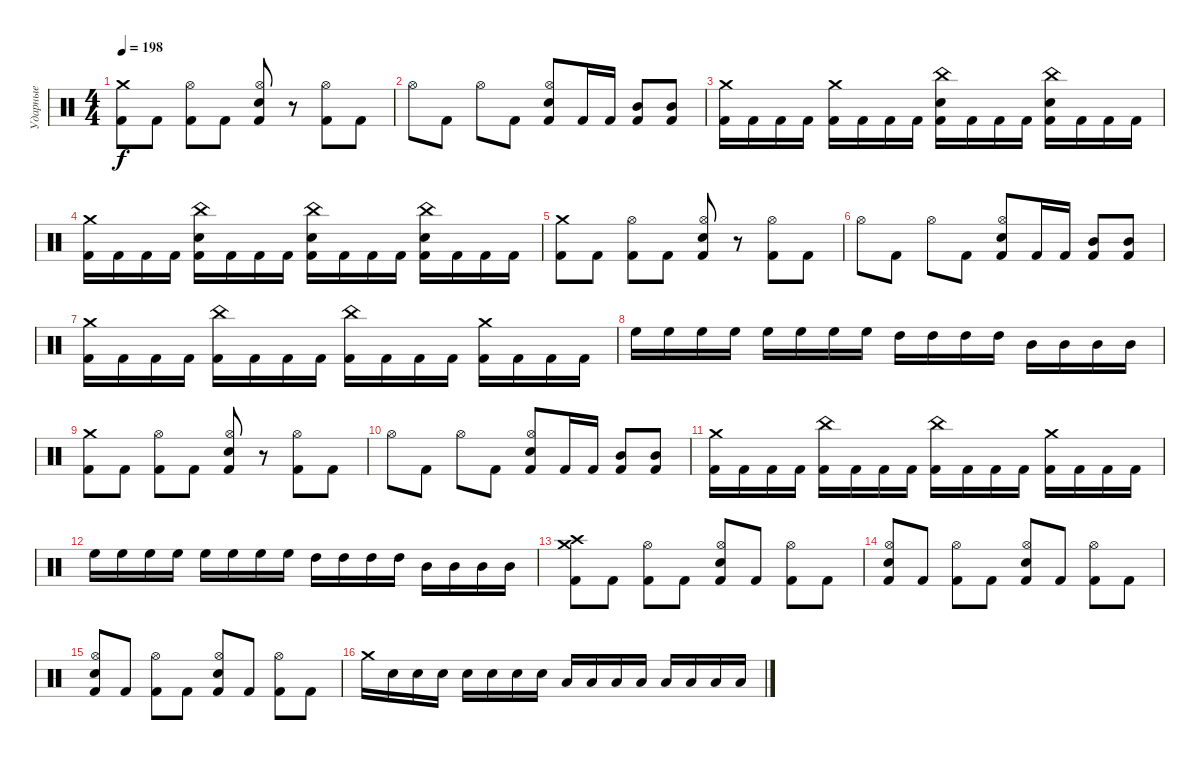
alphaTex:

\track ("Ударные" "Ударные") {instrument percussion}
\staff {score}
\articulation defaults
\ts (4 4)
\tempo 198
\clef neutral
\ks c
("Kick (hit) 2" "Crash medium (hit)").8{dy f} "Kick (hit) 2".8 ("Kick (hit) 2" "Hi-Hat (open)").8 "Kick (hit) 2".8 ("Kick (hit) 2" "Hi-Hat (open)" "Electric Snare (hit)").8 r.8 ("Kick (hit) 2" "Hi-Hat (open)").8 "Kick (hit) 2".8 |
"Hi-Hat (open)".8 "Kick (hit) 2".8 "Hi-Hat (open)".8 "Kick (hit) 2".8 ("Kick (hit) 2" "Hi-Hat (open)" "Electric Snare (hit)").8 "Kick (hit) 2".16 "Kick (hit) 2".16 ("Kick (hit) 2" "Mid Tom (hit)").8 ("Kick (hit) 2" "Mid Tom (hit)").8 |
("Kick (hit) 2" "Crash medium (hit)").16 "Kick (hit) 2".16 "Kick (hit) 2".16 "Kick (hit) 2".16 ("Kick (hit) 2" "Crash medium (hit)").16 "Kick (hit) 2".16 "Kick (hit) 2".16 "Kick (hit) 2".16 ("Kick (hit) 2" "China (hit)" "Electric Snare (hit)").16 "Kick (hit) 2".16 "Kick (hit) 2".16 "Kick (hit) 2".16 ("Kick (hit) 2" "China (hit)" "Electric Snare (hit)").16 "Kick (hit) 2".16 "Kick (hit) 2".16 "Kick (hit) 2".16 |
("Kick (hit) 2" "Crash medium (hit)").16 "Kick (hit) 2".16 "Kick (hit) 2".16 "Kick (hit) 2".16 ("Kick (hit) 2" "China (hit)" "Electric Snare (hit)").16 "Kick (hit) 2".16 "Kick (hit) 2".16 "Kick (hit) 2".16 ("Kick (hit) 2" "China (hit)" "Electric Snare (hit)").16 "Kick (hit) 2".16 "Kick (hit) 2".16 "Kick (hit) 2".16 ("Kick (hit) 2" "China (hit)" "Electric Snare (hit)").16 "Kick (hit) 2".16 "Kick (hit) 2".16 "Kick (hit) 2".16 |
("Kick (hit) 2" "Crash medium (hit)").8 "Kick (hit) 2".8 ("Kick (hit) 2" "Hi-Hat (open)").8 "Kick (hit) 2".8 ("Kick (hit) 2" "Hi-Hat (open)" "Electric Snare (hit)").8 r.8 ("Kick (hit) 2" "Hi-Hat (open)").8 "Kick (hit) 2".8 |
"Hi-Hat (open)".8 "Kick (hit) 2".8 "Hi-Hat (open)".8 "Kick (hit) 2".8 ("Kick (hit) 2" "Hi-Hat (open)" "Electric Snare (hit)").8 "Kick (hit) 2".16 "Kick (hit) 2".16 ("Kick (hit) 2" "Mid Tom (hit)").8 ("Kick (hit) 2" "Mid Tom (hit)").8 |
("Kick (hit) 2" "Crash medium (hit)").16 "Kick (hit) 2".16 "Kick (hit) 2".16 "Kick (hit) 2".16 ("Kick (hit) 2" "China (hit)").16 "Kick (hit) 2".16 "Kick (hit) 2".16 "Kick (hit) 2".16 ("Kick (hit) 2" "China (hit)").16 "Kick (hit) 2".16 "Kick (hit) 2".16 "Kick (hit) 2".16 ("Kick (hit) 2" "Crash medium (hit)").16 "Kick (hit) 2".16 "Kick (hit) 2".16 "Kick (hit) 2".16 |
"High Floor Tom (hit)".16 "High Floor Tom (hit)".16 "High Floor Tom (hit)".16 "High Floor Tom (hit)".16 "High Floor Tom (hit)".16 "High Floor Tom (hit)".16 "High Floor Tom (hit)".16 "High Floor Tom (hit)".16 "High Tom (hit)".16 "High Tom (hit)".16 "High Tom (hit)".16 "High Tom (hit)".16 "Mid Tom (hit)".16 "Mid Tom (hit)".16 "Mid Tom (hit)".16 "Mid Tom (hit)".16 |
("Kick (hit) 2" "Crash medium (hit)").8 "Kick (hit) 2".8 ("Kick (hit) 2" "Hi-Hat (open)").8 "Kick (hit) 2".8 ("Kick (hit) 2" "Hi-Hat (open)" "Electric Snare (hit)").8 r.8 ("Kick (hit) 2" "Hi-Hat (open)").8 "Kick (hit) 2".8 |
"Hi-Hat (open)".8 "Kick (hit) 2".8 "Hi-Hat (open)".8 "Kick (hit) 2".8 ("Kick (hit) 2" "Hi-Hat (open)" "Electric Snare (hit)").8 "Kick (hit) 2".16 "Kick (hit) 2".16 ("Kick (hit) 2" "Mid Tom (hit)").8 ("Kick (hit) 2" "Mid Tom (hit)").8 |
("Kick (hit) 2" "Crash medium (hit)").16 "Kick (hit) 2".16 "Kick (hit) 2".16 "Kick (hit) 2".16 ("Kick (hit) 2" "China (hit)").16 "Kick (hit) 2".16 "Kick (hit) 2".16 "Kick (hit) 2".16 ("Kick (hit) 2" "China (hit)").16 "Kick (hit) 2".16 "Kick (hit) 2".16 "Kick (hit) 2".16 ("Kick (hit) 2" "Crash medium (hit)").16 "Kick (hit) 2".16 "Kick (hit) 2".16 "Kick (hit) 2".16 |
"High Floor Tom (hit)".16 "High Floor Tom (hit)".16 "High Floor Tom (hit)".16 "High Floor Tom (hit)".16 "High Floor Tom (hit)".16 "High Floor Tom (hit)".16 "High Floor Tom (hit)".16 "High Floor Tom (hit)".16 "High Tom (hit)".16 "High Tom (hit)".16 "High Tom (hit)".16 "High Tom (hit)".16 "Mid Tom (hit)".16 "Mid Tom (hit)".16 "Mid Tom (hit)".16 "Mid Tom (hit)".16 |
("Kick (hit) 2" "Crash medium (hit)" "Crash high (hit)").8 "Kick (hit) 2".8 ("Kick (hit) 2" "Hi-Hat (open)").8 "Kick (hit) 2".8 ("Kick (hit) 2" "Hi-Hat (open)" "Electric Snare (hit)").8 "Kick (hit) 2".8 ("Kick (hit) 2" "Hi-Hat (open)").8 "Kick (hit) 2".8 |
("Kick (hit) 2" "Hi-Hat (open)" "Electric Snare (hit)").8 "Kick (hit) 2".8 ("Kick (hit) 2" "Hi-Hat (open)").8 "Kick (hit) 2".8 ("Kick (hit) 2" "Hi-Hat (open)" "Electric Snare (hit)").8 "Kick (hit) 2".8 ("Kick (hit) 2" "Hi-Hat (open)").8 "Kick (hit) 2".8 |
("Kick (hit) 2" "Hi-Hat (open)" "Electric Snare (hit)").8 "Kick (hit) 2".8 ("Kick (hit) 2" "Hi-Hat (open)").8 "Kick (hit) 2".8 ("Kick (hit) 2" "Hi-Hat (open)" "Electric Snare (hit)").8 "Kick (hit) 2".8 ("Kick (hit) 2" "Hi-Hat (open)").8 "Kick (hit) 2".8 |
"Crash medium (hit)".16 "Electric Snare (hit)".16 "Electric Snare (hit)".16 "Electric Snare (hit)".16 "Electric Snare (hit)".16 "Electric Snare (hit)".16 "Electric Snare (hit)".16 "Electric Snare (hit)".16 "Low Tom (hit)".16 "Low Tom (hit)".16 "Low Tom (hit)".16 "Low Tom (hit)".16 "Low Tom (hit)".16 "Low Tom (hit)".16 "Low Tom (hit)".16 "Low Tom (hit)".16
